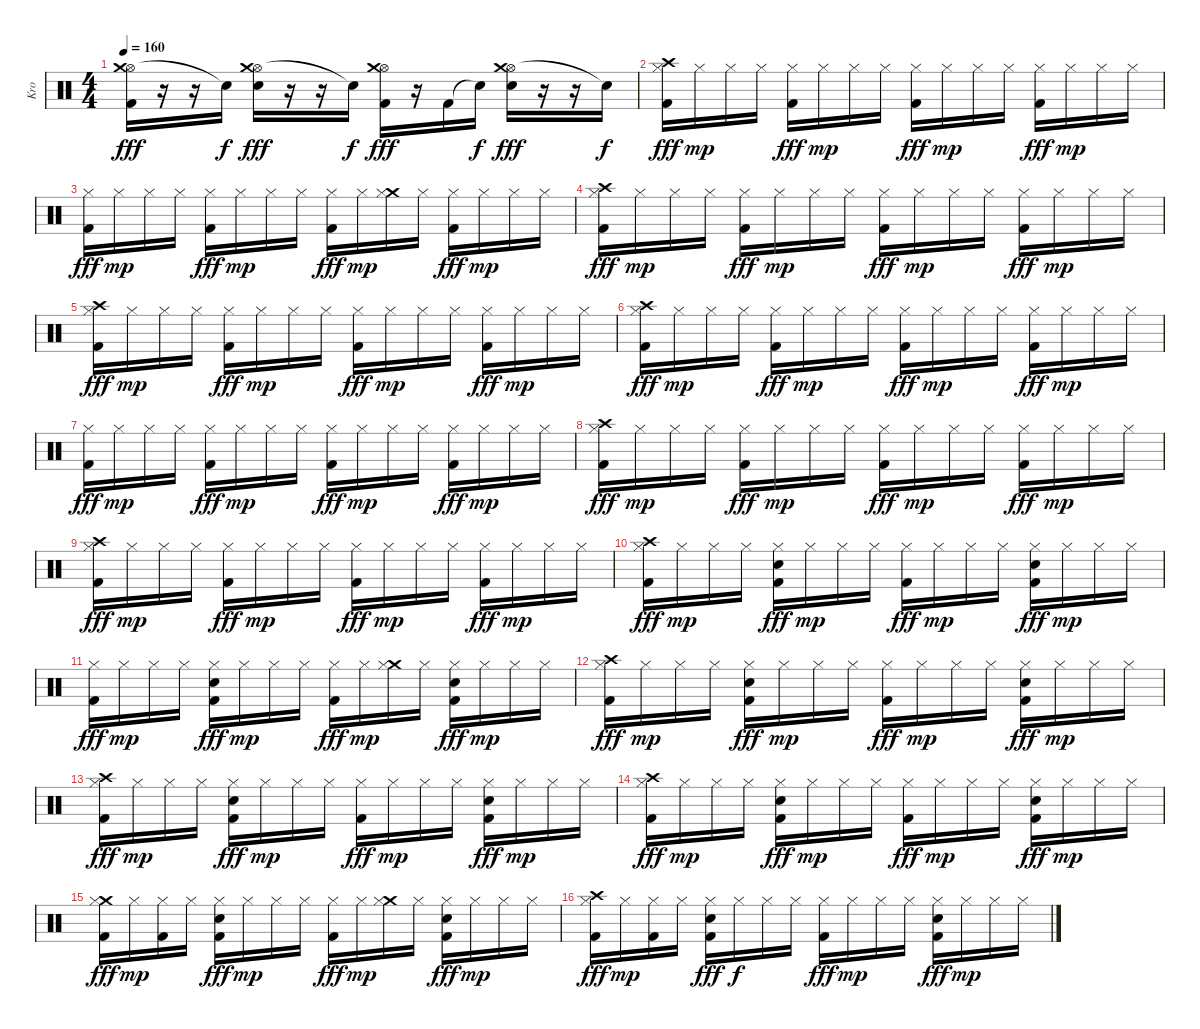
\track ("Kro" "Kro") {instrument percussion}
\staff {score}
\articulation defaults
\ts (4 4)
\tempo 160
\clef neutral
\ks c
("Hi-Hat (open)" "Kick (hit) 2" "Crash medium (hit)").16{dy fff} r.16 r.16 "Snare (hit)"{t}.16{dy f} ("Hi-Hat (open)" "Snare (hit) 2" "Crash medium (hit)").16{dy fff} r.16 r.16 "Snare (hit)"{t}.16{dy f} ("Hi-Hat (open)" "Kick (hit) 2" "Crash medium (hit)").16{dy fff} r.16 "Kick (hit) 2".16 "Snare (hit)"{t}.16{dy f} ("Hi-Hat (open)" "Snare (hit) 2" "Crash medium (hit)").16{dy fff} r.16 r.16 "Snare (hit)"{t}.16{dy f} |
("Crash high (hit)" "Hi-Hat (closed)" "Kick (hit) 2").16{dy fff} "Hi-Hat (closed)".16{dy mp} "Hi-Hat (closed)".16 "Hi-Hat (closed)".16 ("Hi-Hat (closed)" "Kick (hit) 2").16{dy fff} "Hi-Hat (closed)".16{dy mp} "Hi-Hat (closed)".16 "Hi-Hat (closed)".16 ("Hi-Hat (closed)" "Kick (hit) 2").16{dy fff} "Hi-Hat (closed)".16{dy mp} "Hi-Hat (closed)".16 "Hi-Hat (closed)".16 ("Hi-Hat (closed)" "Kick (hit) 2").16{dy fff} "Hi-Hat (closed)".16{dy mp} "Hi-Hat (closed)".16 "Hi-Hat (closed)".16 |
("Hi-Hat (closed)" "Kick (hit) 2").16{dy fff} "Hi-Hat (closed)".16{dy mp} "Hi-Hat (closed)".16 "Hi-Hat (closed)".16 ("Hi-Hat (closed)" "Kick (hit) 2").16{dy fff} "Hi-Hat (closed)".16{dy mp} "Hi-Hat (closed)".16 "Hi-Hat (closed)".16 ("Hi-Hat (closed)" "Kick (hit) 2").16{dy fff} "Hi-Hat (closed)".16{dy mp} ("Crash medium (hit)" "Hi-Hat (closed)").16 "Hi-Hat (closed)".16 ("Hi-Hat (closed)" "Kick (hit) 2").16{dy fff} "Hi-Hat (closed)".16{dy mp} "Hi-Hat (closed)".16 "Hi-Hat (closed)".16 |
("Crash high (hit)" "Hi-Hat (closed)" "Kick (hit) 2").16{dy fff} "Hi-Hat (closed)".16{dy mp} "Hi-Hat (closed)".16 "Hi-Hat (closed)".16 ("Hi-Hat (closed)" "Kick (hit) 2").16{dy fff} "Hi-Hat (closed)".16{dy mp} "Hi-Hat (closed)".16 "Hi-Hat (closed)".16 ("Hi-Hat (closed)" "Kick (hit) 2").16{dy fff} "Hi-Hat (closed)".16{dy mp} "Hi-Hat (closed)".16 "Hi-Hat (closed)".16 ("Hi-Hat (closed)" "Kick (hit) 2").16{dy fff} "Hi-Hat (closed)".16{dy mp} "Hi-Hat (closed)".16 "Hi-Hat (closed)".16 |
("Crash high (hit)" "Hi-Hat (closed)" "Kick (hit) 2").16{dy fff} "Hi-Hat (closed)".16{dy mp} "Hi-Hat (closed)".16 "Hi-Hat (closed)".16 ("Hi-Hat (closed)" "Kick (hit) 2").16{dy fff} "Hi-Hat (closed)".16{dy mp} "Hi-Hat (closed)".16 "Hi-Hat (closed)".16 ("Hi-Hat (closed)" "Kick (hit) 2").16{dy fff} "Hi-Hat (closed)".16{dy mp} "Hi-Hat (closed)".16 "Hi-Hat (closed)".16 ("Hi-Hat (closed)" "Kick (hit) 2").16{dy fff} "Hi-Hat (closed)".16{dy mp} "Hi-Hat (closed)".16 "Hi-Hat (closed)".16 |
("Crash high (hit)" "Hi-Hat (closed)" "Kick (hit) 2").16{dy fff} "Hi-Hat (closed)".16{dy mp} "Hi-Hat (closed)".16 "Hi-Hat (closed)".16 ("Hi-Hat (closed)" "Kick (hit) 2").16{dy fff} "Hi-Hat (closed)".16{dy mp} "Hi-Hat (closed)".16 "Hi-Hat (closed)".16 ("Hi-Hat (closed)" "Kick (hit) 2").16{dy fff} "Hi-Hat (closed)".16{dy mp} "Hi-Hat (closed)".16 "Hi-Hat (closed)".16 ("Hi-Hat (closed)" "Kick (hit) 2").16{dy fff} "Hi-Hat (closed)".16{dy mp} "Hi-Hat (closed)".16 "Hi-Hat (closed)".16 |
("Hi-Hat (closed)" "Kick (hit) 2").16{dy fff} "Hi-Hat (closed)".16{dy mp} "Hi-Hat (closed)".16 "Hi-Hat (closed)".16 ("Hi-Hat (closed)" "Kick (hit) 2").16{dy fff} "Hi-Hat (closed)".16{dy mp} "Hi-Hat (closed)".16 "Hi-Hat (closed)".16 ("Hi-Hat (closed)" "Kick (hit) 2").16{dy fff} "Hi-Hat (closed)".16{dy mp} "Hi-Hat (closed)".16 "Hi-Hat (closed)".16 ("Hi-Hat (closed)" "Kick (hit) 2").16{dy fff} "Hi-Hat (closed)".16{dy mp} "Hi-Hat (closed)".16 "Hi-Hat (closed)".16 |
("Crash high (hit)" "Hi-Hat (closed)" "Kick (hit) 2").16{dy fff} "Hi-Hat (closed)".16{dy mp} "Hi-Hat (closed)".16 "Hi-Hat (closed)".16 ("Hi-Hat (closed)" "Kick (hit) 2").16{dy fff} "Hi-Hat (closed)".16{dy mp} "Hi-Hat (closed)".16 "Hi-Hat (closed)".16 ("Hi-Hat (closed)" "Kick (hit) 2").16{dy fff} "Hi-Hat (closed)".16{dy mp} "Hi-Hat (closed)".16 "Hi-Hat (closed)".16 ("Hi-Hat (closed)" "Kick (hit) 2").16{dy fff} "Hi-Hat (closed)".16{dy mp} "Hi-Hat (closed)".16 "Hi-Hat (closed)".16 |
("Crash high (hit)" "Hi-Hat (closed)" "Kick (hit) 2").16{dy fff} "Hi-Hat (closed)".16{dy mp} "Hi-Hat (closed)".16 "Hi-Hat (closed)".16 ("Hi-Hat (closed)" "Kick (hit) 2").16{dy fff} "Hi-Hat (closed)".16{dy mp} "Hi-Hat (closed)".16 "Hi-Hat (closed)".16 ("Hi-Hat (closed)" "Kick (hit) 2").16{dy fff} "Hi-Hat (closed)".16{dy mp} "Hi-Hat (closed)".16 "Hi-Hat (closed)".16 ("Hi-Hat (closed)" "Kick (hit) 2").16{dy fff} "Hi-Hat (closed)".16{dy mp} "Hi-Hat (closed)".16 "Hi-Hat (closed)".16 |
("Crash high (hit)" "Hi-Hat (closed)" "Kick (hit) 2").16{dy fff} "Hi-Hat (closed)".16{dy mp} "Hi-Hat (closed)".16 "Hi-Hat (closed)".16 ("Snare (hit) 2" "Hi-Hat (closed)" "Kick (hit) 2").16{dy fff} "Hi-Hat (closed)".16{dy mp} "Hi-Hat (closed)".16 "Hi-Hat (closed)".16 ("Hi-Hat (closed)" "Kick (hit) 2").16{dy fff} "Hi-Hat (closed)".16{dy mp} "Hi-Hat (closed)".16 "Hi-Hat (closed)".16 ("Snare (hit) 2" "Hi-Hat (closed)" "Kick (hit) 2").16{dy fff} "Hi-Hat (closed)".16{dy mp} "Hi-Hat (closed)".16 "Hi-Hat (closed)".16 |
("Hi-Hat (closed)" "Kick (hit) 2").16{dy fff} "Hi-Hat (closed)".16{dy mp} "Hi-Hat (closed)".16 "Hi-Hat (closed)".16 ("Snare (hit) 2" "Hi-Hat (closed)" "Kick (hit) 2").16{dy fff} "Hi-Hat (closed)".16{dy mp} "Hi-Hat (closed)".16 "Hi-Hat (closed)".16 ("Hi-Hat (closed)" "Kick (hit) 2").16{dy fff} "Hi-Hat (closed)".16{dy mp} ("Crash medium (hit)" "Hi-Hat (closed)").16 "Hi-Hat (closed)".16 ("Snare (hit) 2" "Hi-Hat (closed)" "Kick (hit) 2").16{dy fff} "Hi-Hat (closed)".16{dy mp} "Hi-Hat (closed)".16 "Hi-Hat (closed)".16 |
("Crash high (hit)" "Hi-Hat (closed)" "Kick (hit) 2").16{dy fff} "Hi-Hat (closed)".16{dy mp} "Hi-Hat (closed)".16 "Hi-Hat (closed)".16 ("Snare (hit) 2" "Hi-Hat (closed)" "Kick (hit) 2").16{dy fff} "Hi-Hat (closed)".16{dy mp} "Hi-Hat (closed)".16 "Hi-Hat (closed)".16 ("Hi-Hat (closed)" "Kick (hit) 2").16{dy fff} "Hi-Hat (closed)".16{dy mp} "Hi-Hat (closed)".16 "Hi-Hat (closed)".16 ("Snare (hit) 2" "Hi-Hat (closed)" "Kick (hit) 2").16{dy fff} "Hi-Hat (closed)".16{dy mp} "Hi-Hat (closed)".16 "Hi-Hat (closed)".16 |
("Crash high (hit)" "Hi-Hat (closed)" "Kick (hit) 2").16{dy fff} "Hi-Hat (closed)".16{dy mp} "Hi-Hat (closed)".16 "Hi-Hat (closed)".16 ("Snare (hit) 2" "Hi-Hat (closed)" "Kick (hit) 2").16{dy fff} "Hi-Hat (closed)".16{dy mp} "Hi-Hat (closed)".16 "Hi-Hat (closed)".16 ("Hi-Hat (closed)" "Kick (hit) 2").16{dy fff} "Hi-Hat (closed)".16{dy mp} "Hi-Hat (closed)".16 "Hi-Hat (closed)".16 ("Snare (hit) 2" "Hi-Hat (closed)" "Kick (hit) 2").16{dy fff} "Hi-Hat (closed)".16{dy mp} "Hi-Hat (closed)".16 "Hi-Hat (closed)".16 |
("Crash high (hit)" "Hi-Hat (closed)" "Kick (hit) 2").16{dy fff} "Hi-Hat (closed)".16{dy mp} "Hi-Hat (closed)".16 "Hi-Hat (closed)".16 ("Snare (hit) 2" "Hi-Hat (closed)" "Kick (hit) 2").16{dy fff} "Hi-Hat (closed)".16{dy mp} "Hi-Hat (closed)".16 "Hi-Hat (closed)".16 ("Hi-Hat (closed)" "Kick (hit) 2").16{dy fff} "Hi-Hat (closed)".16{dy mp} "Hi-Hat (closed)".16 "Hi-Hat (closed)".16 ("Snare (hit) 2" "Hi-Hat (closed)" "Kick (hit) 2").16{dy fff} "Hi-Hat (closed)".16{dy mp} "Hi-Hat (closed)".16 "Hi-Hat (closed)".16 |
("Crash medium (hit)" "Hi-Hat (closed)" "Kick (hit) 2").16{dy fff} "Hi-Hat (closed)".16{dy mp} ("Hi-Hat (closed)" "Kick (hit) 2").16 "Hi-Hat (closed)".16 ("Snare (hit) 2" "Hi-Hat (closed)" "Kick (hit) 2").16{dy fff} "Hi-Hat (closed)".16{dy mp} "Hi-Hat (closed)".16 "Hi-Hat (closed)".16 ("Hi-Hat (closed)" "Kick (hit) 2").16{dy fff} "Hi-Hat (closed)".16{dy mp} ("Crash medium (hit)" "Hi-Hat (closed)").16 "Hi-Hat (closed)".16 ("Snare (hit) 2" "Hi-Hat (closed)" "Kick (hit) 2").16{dy fff} "Hi-Hat (closed)".16{dy mp} "Hi-Hat (closed)".16 "Hi-Hat (closed)".16 |
("Crash high (hit)" "Hi-Hat (closed)" "Kick (hit) 2").16{dy fff} "Hi-Hat (closed)".16{dy mp} ("Hi-Hat (closed)" "Kick (hit) 2").16 "Hi-Hat (closed)".16 ("Snare (hit) 2" "Hi-Hat (closed)" "Kick (hit) 2").16{dy fff} "Hi-Hat (closed)".16{dy f} "Hi-Hat (closed)".16 "Hi-Hat (closed)".16 ("Hi-Hat (closed)" "Kick (hit) 2").16{dy fff} "Hi-Hat (closed)".16{dy mp} "Hi-Hat (closed)".16 "Hi-Hat (closed)".16 ("Snare (hit) 2" "Hi-Hat (closed)" "Kick (hit) 2").16{dy fff} "Hi-Hat (closed)".16{dy mp} "Hi-Hat (closed)".16 "Hi-Hat (closed)".16
